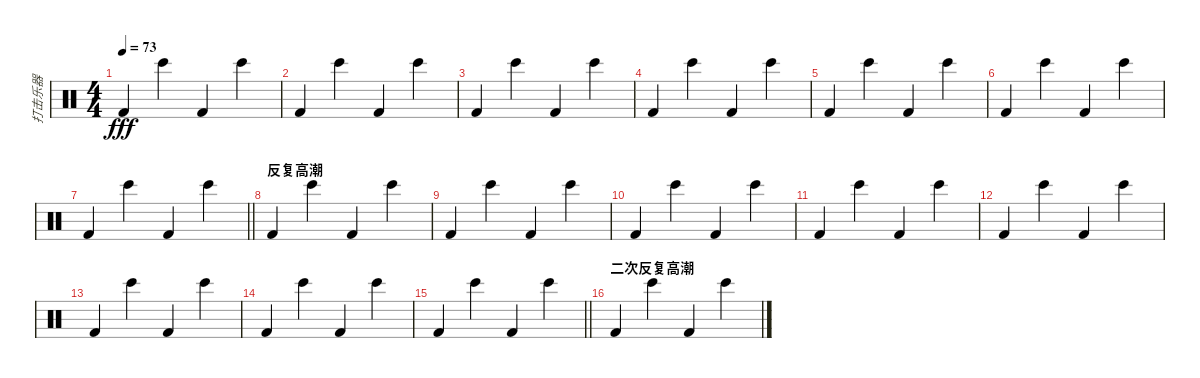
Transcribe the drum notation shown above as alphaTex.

\track ("打击乐器" "打击乐器") {instrument percussion}
\staff {score}
\articulation defaults
\ts (4 4)
\tempo 73
\clef neutral
\ks c "Kick (hit) 2".4{dy fff} "Bongo High (hit)".4 "Kick (hit) 2".4 "Bongo High (hit)".4
|
"Kick (hit) 2".4 "Bongo High (hit)".4 "Kick (hit) 2".4 "Bongo High (hit)".4 |
"Kick (hit) 2".4 "Bongo High (hit)".4 "Kick (hit) 2".4 "Bongo High (hit)".4 |
"Kick (hit) 2".4 "Bongo High (hit)".4 "Kick (hit) 2".4 "Bongo High (hit)".4 |
"Kick (hit) 2".4 "Bongo High (hit)".4 "Kick (hit) 2".4 "Bongo High (hit)".4 |
"Kick (hit) 2".4 "Bongo High (hit)".4 "Kick (hit) 2".4 "Bongo High (hit)".4 |
\barLineRight lightlight "Kick (hit) 2".4 "Bongo High (hit)".4 "Kick (hit) 2".4 "Bongo High (hit)".4
|
\section ("" "反复高潮")
"Kick (hit) 2".4 "Bongo High (hit)".4 "Kick (hit) 2".4 "Bongo High (hit)".4 |
"Kick (hit) 2".4 "Bongo High (hit)".4 "Kick (hit) 2".4 "Bongo High (hit)".4 |
"Kick (hit) 2".4 "Bongo High (hit)".4 "Kick (hit) 2".4 "Bongo High (hit)".4 |
"Kick (hit) 2".4 "Bongo High (hit)".4 "Kick (hit) 2".4 "Bongo High (hit)".4 |
"Kick (hit) 2".4 "Bongo High (hit)".4 "Kick (hit) 2".4 "Bongo High (hit)".4 |
"Kick (hit) 2".4 "Bongo High (hit)".4 "Kick (hit) 2".4 "Bongo High (hit)".4 |
"Kick (hit) 2".4 "Bongo High (hit)".4 "Kick (hit) 2".4 "Bongo High (hit)".4 |
\barLineRight lightlight "Kick (hit) 2".4 "Bongo High (hit)".4 "Kick (hit) 2".4 "Bongo High (hit)".4
|
\section ("" "二次反复高潮")
"Kick (hit) 2".4 "Bongo High (hit)".4 "Kick (hit) 2".4 "Bongo High (hit)".4
